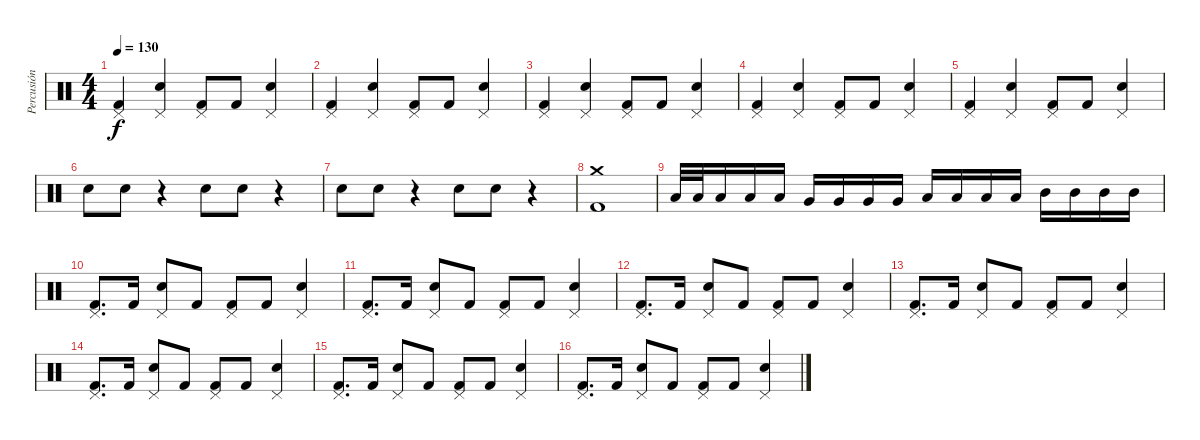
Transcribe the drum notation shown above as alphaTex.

\track ("Percusión" "Percusión") {solo instrument percussion}
\staff {score}
\articulation defaults
\ts (4 4)
\tempo 130
\clef neutral
\ks c
("Kick (hit) 2" "Pedal Hi-Hat (hit)").4{dy f} ("Electric Snare (hit)" "Pedal Hi-Hat (hit)").4 ("Kick (hit) 2" "Pedal Hi-Hat (hit)").8 "Kick (hit) 2".8 ("Electric Snare (hit)" "Pedal Hi-Hat (hit)").4 |
("Kick (hit) 2" "Pedal Hi-Hat (hit)").4 ("Electric Snare (hit)" "Pedal Hi-Hat (hit)").4 ("Kick (hit) 2" "Pedal Hi-Hat (hit)").8 "Kick (hit) 2".8 ("Electric Snare (hit)" "Pedal Hi-Hat (hit)").4 |
("Kick (hit) 2" "Pedal Hi-Hat (hit)").4 ("Electric Snare (hit)" "Pedal Hi-Hat (hit)").4 ("Kick (hit) 2" "Pedal Hi-Hat (hit)").8 "Kick (hit) 2".8 ("Electric Snare (hit)" "Pedal Hi-Hat (hit)").4 |
("Kick (hit) 2" "Pedal Hi-Hat (hit)").4 ("Electric Snare (hit)" "Pedal Hi-Hat (hit)").4 ("Kick (hit) 2" "Pedal Hi-Hat (hit)").8 "Kick (hit) 2".8 ("Electric Snare (hit)" "Pedal Hi-Hat (hit)").4 |
("Kick (hit) 2" "Pedal Hi-Hat (hit)").4 ("Electric Snare (hit)" "Pedal Hi-Hat (hit)").4 ("Kick (hit) 2" "Pedal Hi-Hat (hit)").8 "Kick (hit) 2".8 ("Electric Snare (hit)" "Pedal Hi-Hat (hit)").4 |
"Electric Snare (hit)".8 "Electric Snare (hit)".8 r.4 "Electric Snare (hit)".8 "Electric Snare (hit)".8 r.4 |
"Electric Snare (hit)".8 "Electric Snare (hit)".8 r.4 "Electric Snare (hit)".8 "Electric Snare (hit)".8 r.4 |
("Kick (hit) 2" "Crash medium (hit)").1 |
"Low Floor Tom (hit)".32 "Low Floor Tom (hit)".32 "Low Floor Tom (hit)".16 "Low Floor Tom (hit)".16 "Low Floor Tom (hit)".16 "Very Low Tom (hit)".16 "Very Low Tom (hit)".16 "Very Low Tom (hit)".16 "Very Low Tom (hit)".16 "Low Tom (hit)".16 "Low Tom (hit)".16 "Low Tom (hit)".16 "Low Tom (hit)".16 "Mid Tom (hit)".16 "Mid Tom (hit)".16 "Mid Tom (hit)".16 "Mid Tom (hit)".16 |
("Kick (hit) 2" "Pedal Hi-Hat (hit)").8{d} "Kick (hit) 2".16 ("Electric Snare (hit)" "Pedal Hi-Hat (hit)").8 "Kick (hit) 2".8 ("Kick (hit) 2" "Pedal Hi-Hat (hit)").8 "Kick (hit) 2".8 ("Electric Snare (hit)" "Pedal Hi-Hat (hit)").4 |
("Kick (hit) 2" "Pedal Hi-Hat (hit)").8{d} "Kick (hit) 2".16 ("Electric Snare (hit)" "Pedal Hi-Hat (hit)").8 "Kick (hit) 2".8 ("Kick (hit) 2" "Pedal Hi-Hat (hit)").8 "Kick (hit) 2".8 ("Electric Snare (hit)" "Pedal Hi-Hat (hit)").4 |
("Kick (hit) 2" "Pedal Hi-Hat (hit)").8{d} "Kick (hit) 2".16 ("Electric Snare (hit)" "Pedal Hi-Hat (hit)").8 "Kick (hit) 2".8 ("Kick (hit) 2" "Pedal Hi-Hat (hit)").8 "Kick (hit) 2".8 ("Electric Snare (hit)" "Pedal Hi-Hat (hit)").4 |
("Kick (hit) 2" "Pedal Hi-Hat (hit)").8{d} "Kick (hit) 2".16 ("Electric Snare (hit)" "Pedal Hi-Hat (hit)").8 "Kick (hit) 2".8 ("Kick (hit) 2" "Pedal Hi-Hat (hit)").8 "Kick (hit) 2".8 ("Electric Snare (hit)" "Pedal Hi-Hat (hit)").4 |
("Kick (hit) 2" "Pedal Hi-Hat (hit)").8{d} "Kick (hit) 2".16 ("Electric Snare (hit)" "Pedal Hi-Hat (hit)").8 "Kick (hit) 2".8 ("Kick (hit) 2" "Pedal Hi-Hat (hit)").8 "Kick (hit) 2".8 ("Electric Snare (hit)" "Pedal Hi-Hat (hit)").4 |
("Kick (hit) 2" "Pedal Hi-Hat (hit)").8{d} "Kick (hit) 2".16 ("Electric Snare (hit)" "Pedal Hi-Hat (hit)").8 "Kick (hit) 2".8 ("Kick (hit) 2" "Pedal Hi-Hat (hit)").8 "Kick (hit) 2".8 ("Electric Snare (hit)" "Pedal Hi-Hat (hit)").4 |
("Kick (hit) 2" "Pedal Hi-Hat (hit)").8{d} "Kick (hit) 2".16 ("Electric Snare (hit)" "Pedal Hi-Hat (hit)").8 "Kick (hit) 2".8 ("Kick (hit) 2" "Pedal Hi-Hat (hit)").8 "Kick (hit) 2".8 ("Electric Snare (hit)" "Pedal Hi-Hat (hit)").4
